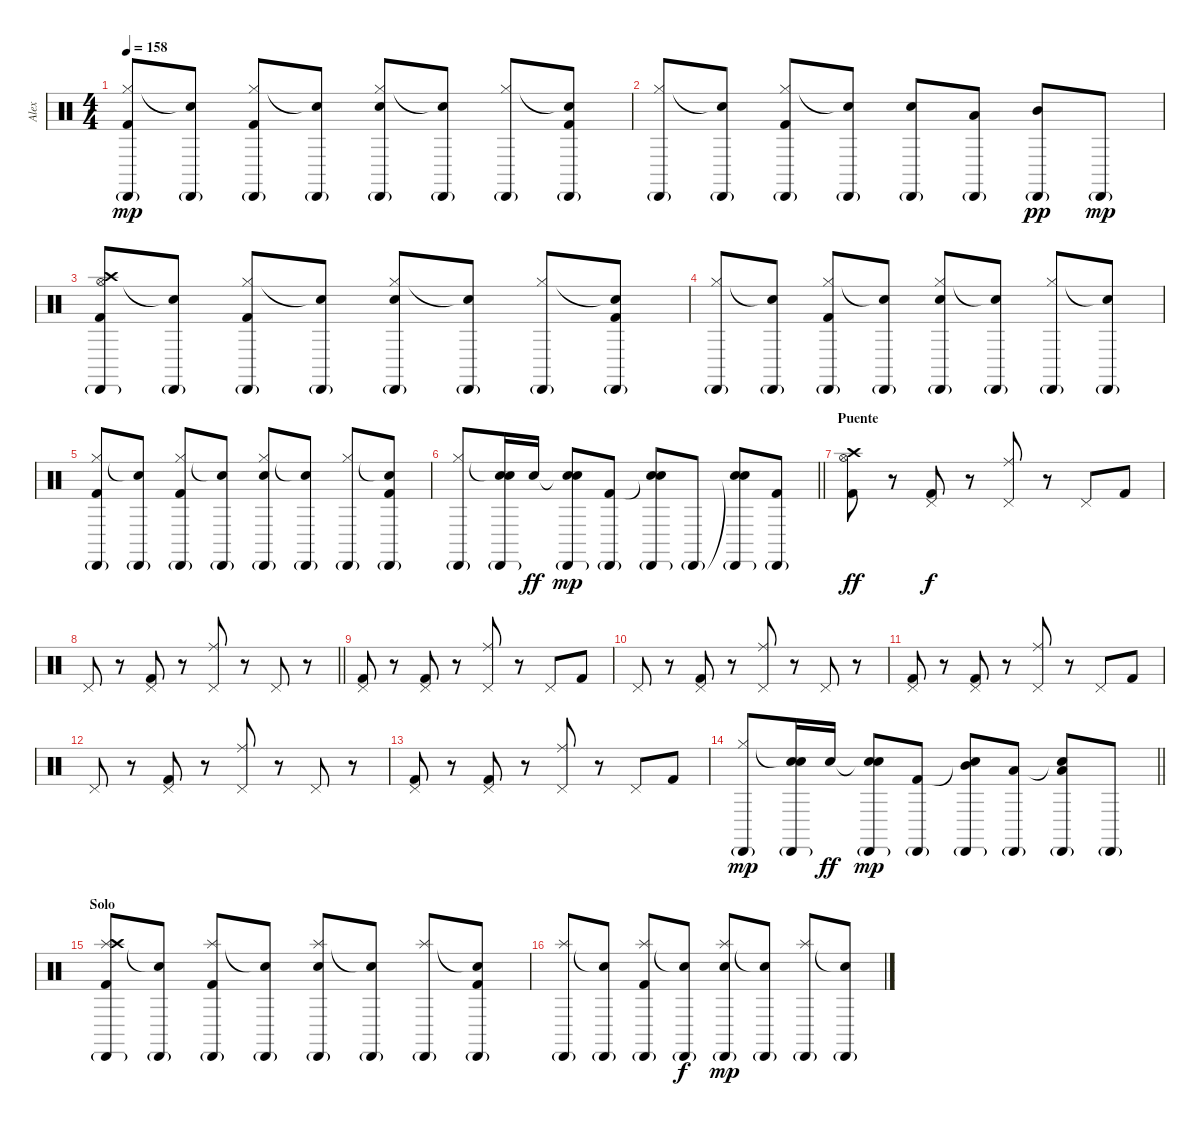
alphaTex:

\track ("Alex" "Alex") {instrument percussion}
\staff {score}
\articulation defaults
\ts (4 4)
\tempo 158
\clef neutral
\ks c
("Hi-Hat (closed)" "Kick (hit) 2" "Cabasa (hit)"{g}).8{dy mp} ("Snare (hit)"{t} "Cabasa (hit)"{g}).8 ("Hi-Hat (closed)" "Kick (hit) 2" "Cabasa (hit)"{g}).8 ("Snare (hit)"{t} "Cabasa (hit)"{g}).8 ("Hi-Hat (closed)" "Electric Snare (hit)" "Cabasa (hit)"{g}).8 ("Snare (hit)"{t} "Cabasa (hit)"{g}).8 ("Hi-Hat (closed)" "Cabasa (hit)"{g}).8 ("Snare (hit)"{t} "Kick (hit) 2" "Cabasa (hit)"{g}).8 |
("Hi-Hat (closed)" "Cabasa (hit)"{g}).8 ("Snare (hit)"{t} "Cabasa (hit)"{g}).8 ("Hi-Hat (closed)" "Kick (hit) 2" "Cabasa (hit)"{g}).8 ("Snare (hit)"{t} "Cabasa (hit)"{g}).8 ("Electric Snare (hit)" "Cabasa (hit)"{g}).8 ("Low Tom (hit)" "Cabasa (hit)"{g}).8 ("Mid Tom (hit)" "Cabasa (hit)"{g}).8{dy pp} "Cabasa (hit)"{g}.8{dy mp} |
("Hi-Hat (open)" "Kick (hit) 2" "Crash high (hit)" "Cabasa (hit)"{g}).8 ("Snare (hit)"{t} "Cabasa (hit)"{g}).8 ("Hi-Hat (closed)" "Kick (hit) 2" "Cabasa (hit)"{g}).8 ("Snare (hit)"{t} "Cabasa (hit)"{g}).8 ("Hi-Hat (closed)" "Electric Snare (hit)" "Cabasa (hit)"{g}).8 ("Snare (hit)"{t} "Cabasa (hit)"{g}).8 ("Hi-Hat (closed)" "Cabasa (hit)"{g}).8 ("Snare (hit)"{t} "Kick (hit) 2" "Cabasa (hit)"{g}).8 |
("Hi-Hat (closed)" "Cabasa (hit)"{g}).8 ("Snare (hit)"{t} "Cabasa (hit)"{g}).8 ("Hi-Hat (closed)" "Kick (hit) 2" "Cabasa (hit)"{g}).8 ("Snare (hit)"{t} "Cabasa (hit)"{g}).8 ("Hi-Hat (closed)" "Electric Snare (hit)" "Cabasa (hit)"{g}).8 ("Snare (hit)"{t} "Cabasa (hit)"{g}).8 ("Hi-Hat (closed)" "Cabasa (hit)"{g}).8 ("Snare (hit)"{t} "Cabasa (hit)"{g}).8 |
("Hi-Hat (closed)" "Kick (hit) 2" "Cabasa (hit)"{g}).8 ("Snare (hit)"{t} "Cabasa (hit)"{g}).8 ("Hi-Hat (closed)" "Kick (hit) 2" "Cabasa (hit)"{g}).8 ("Snare (hit)"{t} "Cabasa (hit)"{g}).8 ("Hi-Hat (closed)" "Electric Snare (hit)" "Cabasa (hit)"{g}).8 ("Snare (hit)"{t} "Cabasa (hit)"{g}).8 ("Hi-Hat (closed)" "Cabasa (hit)"{g}).8 ("Snare (hit)"{t} "Kick (hit) 2" "Cabasa (hit)"{g}).8 |
\barLineRight lightlight
("Hi-Hat (closed)" "Cabasa (hit)"{g}).8 ("Snare (hit)"{t} "Electric Snare (hit)" "Cabasa (hit)"{g}).16 "Electric Snare (hit)".16{dy ff} ("Snare (hit)"{t} "Electric Snare (hit)" "Cabasa (hit)"{g}).8{dy mp} ("Kick (hit) 2" "Cabasa (hit)"{g}).8 ("Snare (hit)"{t} "Electric Snare (hit)" "Cabasa (hit)"{g}).8 "Cabasa (hit)"{g}.8 ("Snare (hit)"{t} "Electric Snare (hit)" "Cabasa (hit)"{g}).8 ("Kick (hit) 2" "Cabasa (hit)"{g}).8 |
\section ("" "Puente")
("Hi-Hat (open)" "Kick (hit) 2" "Crash high (hit)").8{dy ff} r.8 ("Pedal Hi-Hat (hit)" "Kick (hit) 2").8{dy f} r.8 ("Pedal Hi-Hat (hit)" "Ride (middle)").8 r.8 "Pedal Hi-Hat (hit)".8 "Kick (hit) 2".8 |
\barLineRight lightlight "Pedal Hi-Hat (hit)".8
r.8 ("Pedal Hi-Hat (hit)" "Kick (hit) 2").8 r.8 ("Pedal Hi-Hat (hit)" "Ride (middle)").8 r.8 "Pedal Hi-Hat (hit)".8 r.8 |
("Pedal Hi-Hat (hit)" "Kick (hit) 2").8 r.8 ("Pedal Hi-Hat (hit)" "Kick (hit) 2").8 r.8 ("Pedal Hi-Hat (hit)" "Ride (middle)").8 r.8 "Pedal Hi-Hat (hit)".8 "Kick (hit) 2".8 |
"Pedal Hi-Hat (hit)".8 r.8 ("Pedal Hi-Hat (hit)" "Kick (hit) 2").8 r.8 ("Pedal Hi-Hat (hit)" "Ride (middle)").8 r.8 "Pedal Hi-Hat (hit)".8 r.8 |
("Pedal Hi-Hat (hit)" "Kick (hit) 2").8 r.8 ("Pedal Hi-Hat (hit)" "Kick (hit) 2").8 r.8 ("Pedal Hi-Hat (hit)" "Ride (middle)").8 r.8 "Pedal Hi-Hat (hit)".8 "Kick (hit) 2".8 |
"Pedal Hi-Hat (hit)".8 r.8 ("Pedal Hi-Hat (hit)" "Kick (hit) 2").8 r.8 ("Pedal Hi-Hat (hit)" "Ride (middle)").8 r.8 "Pedal Hi-Hat (hit)".8 r.8 |
("Pedal Hi-Hat (hit)" "Kick (hit) 2").8 r.8 ("Pedal Hi-Hat (hit)" "Kick (hit) 2").8 r.8 ("Pedal Hi-Hat (hit)" "Ride (middle)").8 r.8 "Pedal Hi-Hat (hit)".8 "Kick (hit) 2".8 |
\barLineRight lightlight
("Hi-Hat (closed)" "Cabasa (hit)"{g}).8{dy mp} ("Snare (hit)"{t} "Electric Snare (hit)" "Cabasa (hit)"{g}).16 "Electric Snare (hit)".16{dy ff} ("Snare (hit)"{t} "Electric Snare (hit)" "Cabasa (hit)"{g}).8{dy mp} ("Kick (hit) 2" "Cabasa (hit)"{g}).8 ("Snare (hit)"{t} "Mid Tom (hit)" "Cabasa (hit)"{g}).8 ("Low Tom (hit)" "Cabasa (hit)"{g}).8 ("Snare (hit)"{t} "Low Tom (hit)" "Cabasa (hit)"{g}).8 "Cabasa (hit)"{g}.8 |
\section ("" "Solo")
("Splash (hit)" "Kick (hit) 2" "Crash high (hit)" "Cabasa (hit)"{g}).8 ("Snare (hit)"{t} "Cabasa (hit)"{g}).8 ("Splash (hit)" "Kick (hit) 2" "Cabasa (hit)"{g}).8 ("Snare (hit)"{t} "Cabasa (hit)"{g}).8 ("Splash (hit)" "Electric Snare (hit)" "Cabasa (hit)"{g}).8 ("Snare (hit)"{t} "Cabasa (hit)"{g}).8 ("Splash (hit)" "Cabasa (hit)"{g}).8 ("Snare (hit)"{t} "Kick (hit) 2" "Cabasa (hit)"{g}).8 |
("Splash (hit)" "Cabasa (hit)"{g}).8 ("Snare (hit)"{t} "Cabasa (hit)"{g}).8 ("Splash (hit)" "Kick (hit) 2" "Cabasa (hit)"{g}).8 ("Snare (hit)"{t} "Cabasa (hit)"{g}).8{dy f} ("Splash (hit)" "Electric Snare (hit)" "Cabasa (hit)"{g}).8{dy mp} ("Snare (hit)"{t} "Cabasa (hit)"{g}).8 ("Splash (hit)" "Cabasa (hit)"{g}).8 ("Snare (hit)"{t} "Cabasa (hit)"{g}).8
